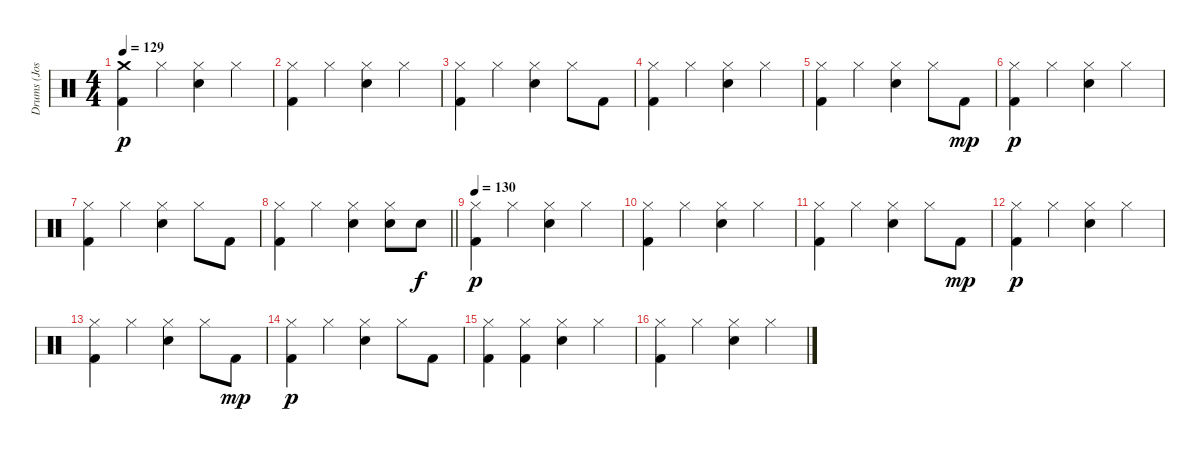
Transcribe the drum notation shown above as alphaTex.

\track ("Drums (Josh Freese)" "Drums (Jos") {instrument percussion}
\staff {score}
\articulation defaults
\ts (4 4)
\tempo 129
\clef neutral
\ks c
("Crash medium (hit)" "Kick (hit) 2").4{dy p} "Hi-Hat (closed)".4 ("Hi-Hat (closed)" "Electric Snare (hit)").4 "Hi-Hat (closed)".4 |
("Hi-Hat (closed)" "Kick (hit) 2").4 "Hi-Hat (closed)".4 ("Hi-Hat (closed)" "Electric Snare (hit)").4 "Hi-Hat (closed)".4 |
("Hi-Hat (closed)" "Kick (hit) 2").4 "Hi-Hat (closed)".4 ("Hi-Hat (closed)" "Electric Snare (hit)").4 "Hi-Hat (closed)".8 "Kick (hit) 2".8 |
("Hi-Hat (closed)" "Kick (hit) 2").4 "Hi-Hat (closed)".4 ("Hi-Hat (closed)" "Electric Snare (hit)").4 "Hi-Hat (closed)".4 |
("Hi-Hat (closed)" "Kick (hit) 2").4 "Hi-Hat (closed)".4 ("Hi-Hat (closed)" "Electric Snare (hit)").4 "Hi-Hat (closed)".8 "Kick (hit) 2".8{dy mp} |
("Hi-Hat (closed)" "Kick (hit) 2").4{dy p} "Hi-Hat (closed)".4 ("Hi-Hat (closed)" "Electric Snare (hit)").4 "Hi-Hat (closed)".4 |
("Hi-Hat (closed)" "Kick (hit) 2").4 "Hi-Hat (closed)".4 ("Hi-Hat (closed)" "Electric Snare (hit)").4 "Hi-Hat (closed)".8 "Kick (hit) 2".8 |
\barLineRight lightlight
("Hi-Hat (closed)" "Kick (hit) 2").4 "Hi-Hat (closed)".4 ("Hi-Hat (closed)" "Electric Snare (hit)").4 ("Hi-Hat (closed)" "Electric Snare (hit)").8 "Electric Snare (hit)".8{dy f} |
\tempo 130
("Hi-Hat (closed)" "Kick (hit) 2").4{dy p} "Hi-Hat (closed)".4 ("Hi-Hat (closed)" "Electric Snare (hit)").4 "Hi-Hat (closed)".4 |
("Hi-Hat (closed)" "Kick (hit) 2").4 "Hi-Hat (closed)".4 ("Hi-Hat (closed)" "Electric Snare (hit)").4 "Hi-Hat (closed)".4 |
("Hi-Hat (closed)" "Kick (hit) 2").4 "Hi-Hat (closed)".4 ("Hi-Hat (closed)" "Electric Snare (hit)").4 "Hi-Hat (closed)".8 "Kick (hit) 2".8{dy mp} |
("Hi-Hat (closed)" "Kick (hit) 2").4{dy p} "Hi-Hat (closed)".4 ("Hi-Hat (closed)" "Electric Snare (hit)").4 "Hi-Hat (closed)".4 |
("Hi-Hat (closed)" "Kick (hit) 2").4 "Hi-Hat (closed)".4 ("Hi-Hat (closed)" "Electric Snare (hit)").4 "Hi-Hat (closed)".8 "Kick (hit) 2".8{dy mp} |
("Hi-Hat (closed)" "Kick (hit) 2").4{dy p} "Hi-Hat (closed)".4 ("Hi-Hat (closed)" "Electric Snare (hit)").4 "Hi-Hat (closed)".8 "Kick (hit) 2".8 |
("Hi-Hat (closed)" "Kick (hit) 2").4 ("Hi-Hat (closed)" "Kick (hit) 2").4 ("Hi-Hat (closed)" "Electric Snare (hit)").4 "Hi-Hat (closed)".4 |
("Hi-Hat (closed)" "Kick (hit) 2").4 "Hi-Hat (closed)".4 ("Hi-Hat (closed)" "Electric Snare (hit)").4 "Hi-Hat (closed)".4
